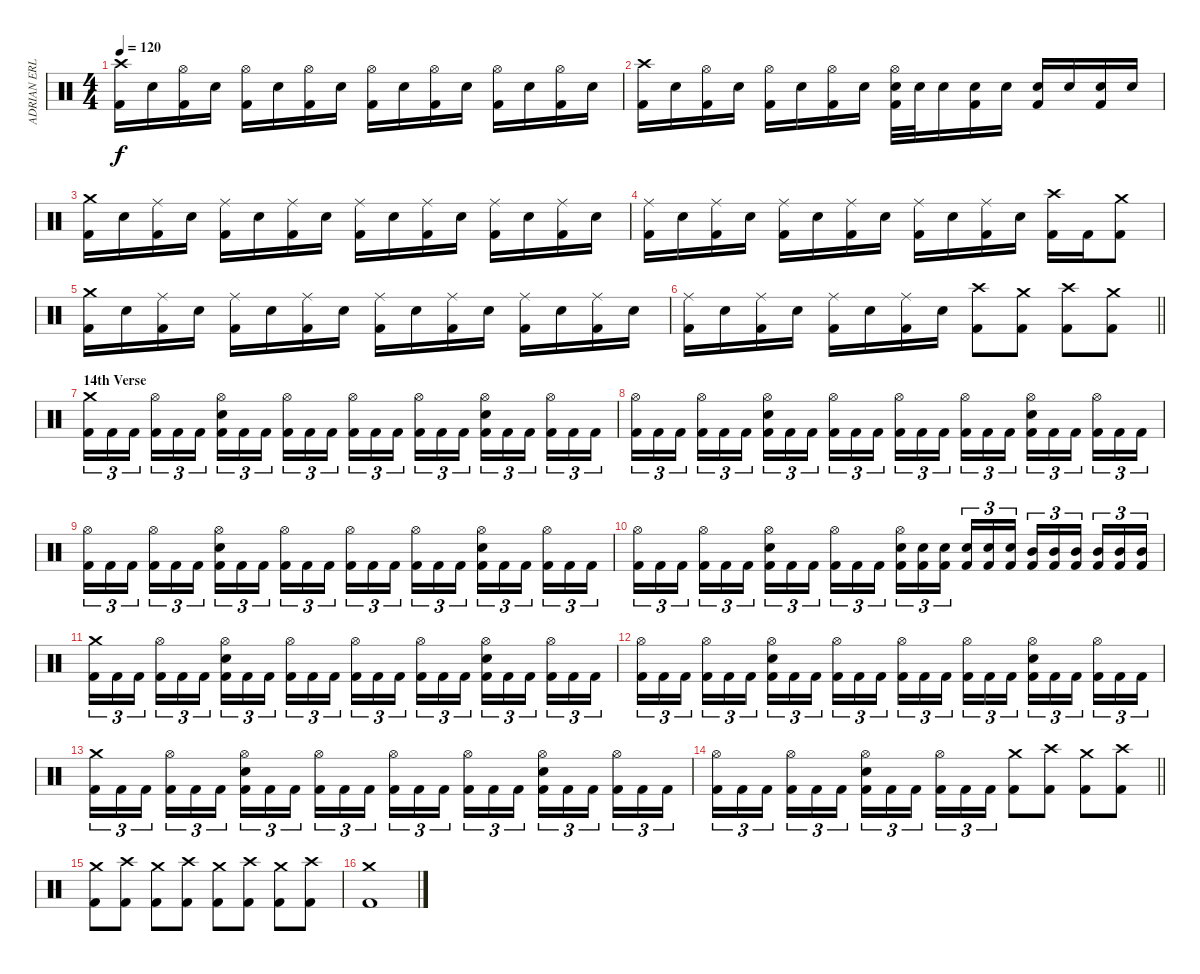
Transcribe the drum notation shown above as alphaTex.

\track ("ADRIAN ERLANDSSON" "ADRIAN ERL") {instrument percussion}
\staff {score}
\articulation defaults
\ts (4 4)
\tempo 120
\clef neutral
\ks c
("Kick (hit) 2" "Crash high (hit)").16{dy f} "Electric Snare (hit)".16 ("Kick (hit) 2" "Hi-Hat (open)").16 "Electric Snare (hit)".16 ("Kick (hit) 2" "Hi-Hat (open)").16 "Electric Snare (hit)".16 ("Kick (hit) 2" "Hi-Hat (open)").16 "Electric Snare (hit)".16 ("Kick (hit) 2" "Hi-Hat (open)").16 "Electric Snare (hit)".16 ("Kick (hit) 2" "Hi-Hat (open)").16 "Electric Snare (hit)".16 ("Kick (hit) 2" "Hi-Hat (open)").16 "Electric Snare (hit)".16 ("Kick (hit) 2" "Hi-Hat (open)").16 "Electric Snare (hit)".16 |
("Kick (hit) 2" "Crash high (hit)").16 "Electric Snare (hit)".16 ("Kick (hit) 2" "Hi-Hat (open)").16 "Electric Snare (hit)".16 ("Kick (hit) 2" "Hi-Hat (open)").16 "Electric Snare (hit)".16 ("Kick (hit) 2" "Hi-Hat (open)").16 "Electric Snare (hit)".16 ("Kick (hit) 2" "Electric Snare (hit)" "Hi-Hat (open)").32 "Electric Snare (hit)".32 "Electric Snare (hit)".16 ("Kick (hit) 2" "Electric Snare (hit)").16 "Electric Snare (hit)".16 ("Kick (hit) 2" "Electric Snare (hit)").16 "Electric Snare (hit)".16 ("Kick (hit) 2" "Electric Snare (hit)").16 "Electric Snare (hit)".16 |
("Kick (hit) 2" "Crash medium (hit)").16 "Electric Snare (hit)".16 ("Kick (hit) 2" "Ride (middle)").16 "Electric Snare (hit)".16 ("Kick (hit) 2" "Ride (middle)").16 "Electric Snare (hit)".16 ("Kick (hit) 2" "Ride (middle)").16 "Electric Snare (hit)".16 ("Kick (hit) 2" "Ride (middle)").16 "Electric Snare (hit)".16 ("Kick (hit) 2" "Ride (middle)").16 "Electric Snare (hit)".16 ("Kick (hit) 2" "Ride (middle)").16 "Electric Snare (hit)".16 ("Kick (hit) 2" "Ride (middle)").16 "Electric Snare (hit)".16 |
("Kick (hit) 2" "Ride (middle)").16 "Electric Snare (hit)".16 ("Kick (hit) 2" "Ride (middle)").16 "Electric Snare (hit)".16 ("Kick (hit) 2" "Ride (middle)").16 "Electric Snare (hit)".16 ("Kick (hit) 2" "Ride (middle)").16 "Electric Snare (hit)".16 ("Kick (hit) 2" "Ride (middle)").16 "Electric Snare (hit)".16 ("Kick (hit) 2" "Ride (middle)").16 "Electric Snare (hit)".16 ("Kick (hit) 2" "Crash high (hit)").16 "Kick (hit) 2".16 ("Kick (hit) 2" "Crash medium (hit)").8 |
("Kick (hit) 2" "Crash medium (hit)").16 "Electric Snare (hit)".16 ("Kick (hit) 2" "Ride (middle)").16 "Electric Snare (hit)".16 ("Kick (hit) 2" "Ride (middle)").16 "Electric Snare (hit)".16 ("Kick (hit) 2" "Ride (middle)").16 "Electric Snare (hit)".16 ("Kick (hit) 2" "Ride (middle)").16 "Electric Snare (hit)".16 ("Kick (hit) 2" "Ride (middle)").16 "Electric Snare (hit)".16 ("Kick (hit) 2" "Ride (middle)").16 "Electric Snare (hit)".16 ("Kick (hit) 2" "Ride (middle)").16 "Electric Snare (hit)".16 |
\barLineRight lightlight
("Kick (hit) 2" "Ride (middle)").16 "Electric Snare (hit)".16 ("Kick (hit) 2" "Ride (middle)").16 "Electric Snare (hit)".16 ("Kick (hit) 2" "Ride (middle)").16 "Electric Snare (hit)".16 ("Kick (hit) 2" "Ride (middle)").16 "Electric Snare (hit)".16 ("Kick (hit) 2" "Crash high (hit)").8 ("Kick (hit) 2" "Crash medium (hit)").8 ("Kick (hit) 2" "Crash high (hit)").8 ("Kick (hit) 2" "Crash medium (hit)").8 |
\section ("" "14th Verse")
("Kick (hit) 2" "Crash medium (hit)").16{tu (3 2)} "Kick (hit) 2".16{tu (3 2)} "Kick (hit) 2".16{tu (3 2) beam splitsecondary} ("Kick (hit) 2" "Hi-Hat (open)").16{tu (3 2)} "Kick (hit) 2".16{tu (3 2)} "Kick (hit) 2".16{tu (3 2)} ("Kick (hit) 2" "Electric Snare (hit)" "Hi-Hat (open)").16{tu (3 2)} "Kick (hit) 2".16{tu (3 2)} "Kick (hit) 2".16{tu (3 2) beam splitsecondary} ("Kick (hit) 2" "Hi-Hat (open)").16{tu (3 2)} "Kick (hit) 2".16{tu (3 2)} "Kick (hit) 2".16{tu (3 2)} ("Kick (hit) 2" "Hi-Hat (open)").16{tu (3 2)} "Kick (hit) 2".16{tu (3 2)} "Kick (hit) 2".16{tu (3 2) beam splitsecondary} ("Kick (hit) 2" "Hi-Hat (open)").16{tu (3 2)} "Kick (hit) 2".16{tu (3 2)} "Kick (hit) 2".16{tu (3 2)} ("Kick (hit) 2" "Electric Snare (hit)" "Hi-Hat (open)").16{tu (3 2)} "Kick (hit) 2".16{tu (3 2)} "Kick (hit) 2".16{tu (3 2) beam splitsecondary} ("Kick (hit) 2" "Hi-Hat (open)").16{tu (3 2)} "Kick (hit) 2".16{tu (3 2)} "Kick (hit) 2".16{tu (3 2)} |
("Kick (hit) 2" "Hi-Hat (open)").16{tu (3 2)} "Kick (hit) 2".16{tu (3 2)} "Kick (hit) 2".16{tu (3 2) beam splitsecondary} ("Kick (hit) 2" "Hi-Hat (open)").16{tu (3 2)} "Kick (hit) 2".16{tu (3 2)} "Kick (hit) 2".16{tu (3 2)} ("Kick (hit) 2" "Electric Snare (hit)" "Hi-Hat (open)").16{tu (3 2)} "Kick (hit) 2".16{tu (3 2)} "Kick (hit) 2".16{tu (3 2) beam splitsecondary} ("Kick (hit) 2" "Hi-Hat (open)").16{tu (3 2)} "Kick (hit) 2".16{tu (3 2)} "Kick (hit) 2".16{tu (3 2)} ("Kick (hit) 2" "Hi-Hat (open)").16{tu (3 2)} "Kick (hit) 2".16{tu (3 2)} "Kick (hit) 2".16{tu (3 2) beam splitsecondary} ("Kick (hit) 2" "Hi-Hat (open)").16{tu (3 2)} "Kick (hit) 2".16{tu (3 2)} "Kick (hit) 2".16{tu (3 2)} ("Kick (hit) 2" "Electric Snare (hit)" "Hi-Hat (open)").16{tu (3 2)} "Kick (hit) 2".16{tu (3 2)} "Kick (hit) 2".16{tu (3 2) beam splitsecondary} ("Kick (hit) 2" "Hi-Hat (open)").16{tu (3 2)} "Kick (hit) 2".16{tu (3 2)} "Kick (hit) 2".16{tu (3 2)} |
("Kick (hit) 2" "Hi-Hat (open)").16{tu (3 2)} "Kick (hit) 2".16{tu (3 2)} "Kick (hit) 2".16{tu (3 2) beam splitsecondary} ("Kick (hit) 2" "Hi-Hat (open)").16{tu (3 2)} "Kick (hit) 2".16{tu (3 2)} "Kick (hit) 2".16{tu (3 2)} ("Kick (hit) 2" "Electric Snare (hit)" "Hi-Hat (open)").16{tu (3 2)} "Kick (hit) 2".16{tu (3 2)} "Kick (hit) 2".16{tu (3 2) beam splitsecondary} ("Kick (hit) 2" "Hi-Hat (open)").16{tu (3 2)} "Kick (hit) 2".16{tu (3 2)} "Kick (hit) 2".16{tu (3 2)} ("Kick (hit) 2" "Hi-Hat (open)").16{tu (3 2)} "Kick (hit) 2".16{tu (3 2)} "Kick (hit) 2".16{tu (3 2) beam splitsecondary} ("Kick (hit) 2" "Hi-Hat (open)").16{tu (3 2)} "Kick (hit) 2".16{tu (3 2)} "Kick (hit) 2".16{tu (3 2)} ("Kick (hit) 2" "Electric Snare (hit)" "Hi-Hat (open)").16{tu (3 2)} "Kick (hit) 2".16{tu (3 2)} "Kick (hit) 2".16{tu (3 2) beam splitsecondary} ("Kick (hit) 2" "Hi-Hat (open)").16{tu (3 2)} "Kick (hit) 2".16{tu (3 2)} "Kick (hit) 2".16{tu (3 2)} |
("Kick (hit) 2" "Hi-Hat (open)").16{tu (3 2)} "Kick (hit) 2".16{tu (3 2)} "Kick (hit) 2".16{tu (3 2) beam splitsecondary} ("Kick (hit) 2" "Hi-Hat (open)").16{tu (3 2)} "Kick (hit) 2".16{tu (3 2)} "Kick (hit) 2".16{tu (3 2)} ("Kick (hit) 2" "Electric Snare (hit)" "Hi-Hat (open)").16{tu (3 2)} "Kick (hit) 2".16{tu (3 2)} "Kick (hit) 2".16{tu (3 2) beam splitsecondary} ("Kick (hit) 2" "Hi-Hat (open)").16{tu (3 2)} "Kick (hit) 2".16{tu (3 2)} "Kick (hit) 2".16{tu (3 2)} ("Kick (hit) 2" "Electric Snare (hit)" "Hi-Hat (open)").16{tu (3 2)} ("Kick (hit) 2" "Electric Snare (hit)").16{tu (3 2)} ("Kick (hit) 2" "Electric Snare (hit)").16{tu (3 2) beam splitsecondary} ("Kick (hit) 2" "Electric Snare (hit)").16{tu (3 2)} ("Kick (hit) 2" "Electric Snare (hit)").16{tu (3 2)} ("Kick (hit) 2" "Electric Snare (hit)").16{tu (3 2)} ("Kick (hit) 2" "Mid Tom (hit)").16{tu (3 2)} ("Kick (hit) 2" "Mid Tom (hit)").16{tu (3 2)} ("Kick (hit) 2" "Mid Tom (hit)").16{tu (3 2) beam splitsecondary} ("Kick (hit) 2" "Mid Tom (hit)").16{tu (3 2)} ("Kick (hit) 2" "Mid Tom (hit)").16{tu (3 2)} ("Kick (hit) 2" "Mid Tom (hit)").16{tu (3 2)} |
("Kick (hit) 2" "Crash medium (hit)").16{tu (3 2)} "Kick (hit) 2".16{tu (3 2)} "Kick (hit) 2".16{tu (3 2) beam splitsecondary} ("Kick (hit) 2" "Hi-Hat (open)").16{tu (3 2)} "Kick (hit) 2".16{tu (3 2)} "Kick (hit) 2".16{tu (3 2)} ("Kick (hit) 2" "Electric Snare (hit)" "Hi-Hat (open)").16{tu (3 2)} "Kick (hit) 2".16{tu (3 2)} "Kick (hit) 2".16{tu (3 2) beam splitsecondary} ("Kick (hit) 2" "Hi-Hat (open)").16{tu (3 2)} "Kick (hit) 2".16{tu (3 2)} "Kick (hit) 2".16{tu (3 2)} ("Kick (hit) 2" "Hi-Hat (open)").16{tu (3 2)} "Kick (hit) 2".16{tu (3 2)} "Kick (hit) 2".16{tu (3 2) beam splitsecondary} ("Kick (hit) 2" "Hi-Hat (open)").16{tu (3 2)} "Kick (hit) 2".16{tu (3 2)} "Kick (hit) 2".16{tu (3 2)} ("Kick (hit) 2" "Electric Snare (hit)" "Hi-Hat (open)").16{tu (3 2)} "Kick (hit) 2".16{tu (3 2)} "Kick (hit) 2".16{tu (3 2) beam splitsecondary} ("Kick (hit) 2" "Hi-Hat (open)").16{tu (3 2)} "Kick (hit) 2".16{tu (3 2)} "Kick (hit) 2".16{tu (3 2)} |
("Kick (hit) 2" "Hi-Hat (open)").16{tu (3 2)} "Kick (hit) 2".16{tu (3 2)} "Kick (hit) 2".16{tu (3 2) beam splitsecondary} ("Kick (hit) 2" "Hi-Hat (open)").16{tu (3 2)} "Kick (hit) 2".16{tu (3 2)} "Kick (hit) 2".16{tu (3 2)} ("Kick (hit) 2" "Electric Snare (hit)" "Hi-Hat (open)").16{tu (3 2)} "Kick (hit) 2".16{tu (3 2)} "Kick (hit) 2".16{tu (3 2) beam splitsecondary} ("Kick (hit) 2" "Hi-Hat (open)").16{tu (3 2)} "Kick (hit) 2".16{tu (3 2)} "Kick (hit) 2".16{tu (3 2)} ("Kick (hit) 2" "Hi-Hat (open)").16{tu (3 2)} "Kick (hit) 2".16{tu (3 2)} "Kick (hit) 2".16{tu (3 2) beam splitsecondary} ("Kick (hit) 2" "Hi-Hat (open)").16{tu (3 2)} "Kick (hit) 2".16{tu (3 2)} "Kick (hit) 2".16{tu (3 2)} ("Kick (hit) 2" "Electric Snare (hit)" "Hi-Hat (open)").16{tu (3 2)} "Kick (hit) 2".16{tu (3 2)} "Kick (hit) 2".16{tu (3 2) beam splitsecondary} ("Kick (hit) 2" "Hi-Hat (open)").16{tu (3 2)} "Kick (hit) 2".16{tu (3 2)} "Kick (hit) 2".16{tu (3 2)} |
("Kick (hit) 2" "Crash medium (hit)").16{tu (3 2)} "Kick (hit) 2".16{tu (3 2)} "Kick (hit) 2".16{tu (3 2) beam splitsecondary} ("Kick (hit) 2" "Hi-Hat (open)").16{tu (3 2)} "Kick (hit) 2".16{tu (3 2)} "Kick (hit) 2".16{tu (3 2)} ("Kick (hit) 2" "Electric Snare (hit)" "Hi-Hat (open)").16{tu (3 2)} "Kick (hit) 2".16{tu (3 2)} "Kick (hit) 2".16{tu (3 2) beam splitsecondary} ("Kick (hit) 2" "Hi-Hat (open)").16{tu (3 2)} "Kick (hit) 2".16{tu (3 2)} "Kick (hit) 2".16{tu (3 2)} ("Kick (hit) 2" "Hi-Hat (open)").16{tu (3 2)} "Kick (hit) 2".16{tu (3 2)} "Kick (hit) 2".16{tu (3 2) beam splitsecondary} ("Kick (hit) 2" "Hi-Hat (open)").16{tu (3 2)} "Kick (hit) 2".16{tu (3 2)} "Kick (hit) 2".16{tu (3 2)} ("Kick (hit) 2" "Electric Snare (hit)" "Hi-Hat (open)").16{tu (3 2)} "Kick (hit) 2".16{tu (3 2)} "Kick (hit) 2".16{tu (3 2) beam splitsecondary} ("Kick (hit) 2" "Hi-Hat (open)").16{tu (3 2)} "Kick (hit) 2".16{tu (3 2)} "Kick (hit) 2".16{tu (3 2)} |
\barLineRight lightlight
("Kick (hit) 2" "Hi-Hat (open)").16{tu (3 2)} "Kick (hit) 2".16{tu (3 2)} "Kick (hit) 2".16{tu (3 2) beam splitsecondary} ("Kick (hit) 2" "Hi-Hat (open)").16{tu (3 2)} "Kick (hit) 2".16{tu (3 2)} "Kick (hit) 2".16{tu (3 2)} ("Kick (hit) 2" "Electric Snare (hit)" "Hi-Hat (open)").16{tu (3 2)} "Kick (hit) 2".16{tu (3 2)} "Kick (hit) 2".16{tu (3 2) beam splitsecondary} ("Kick (hit) 2" "Hi-Hat (open)").16{tu (3 2)} "Kick (hit) 2".16{tu (3 2)} "Kick (hit) 2".16{tu (3 2)} ("Kick (hit) 2" "Crash medium (hit)").8 ("Kick (hit) 2" "Crash high (hit)").8 ("Kick (hit) 2" "Crash medium (hit)").8 ("Kick (hit) 2" "Crash high (hit)").8 |
("Kick (hit) 2" "Crash medium (hit)").8 ("Kick (hit) 2" "Crash high (hit)").8 ("Kick (hit) 2" "Crash medium (hit)").8 ("Kick (hit) 2" "Crash high (hit)").8 ("Kick (hit) 2" "Crash medium (hit)").8 ("Kick (hit) 2" "Crash high (hit)").8 ("Kick (hit) 2" "Crash medium (hit)").8 ("Kick (hit) 2" "Crash high (hit)").8 |
("Kick (hit) 2" "Crash medium (hit)").1
